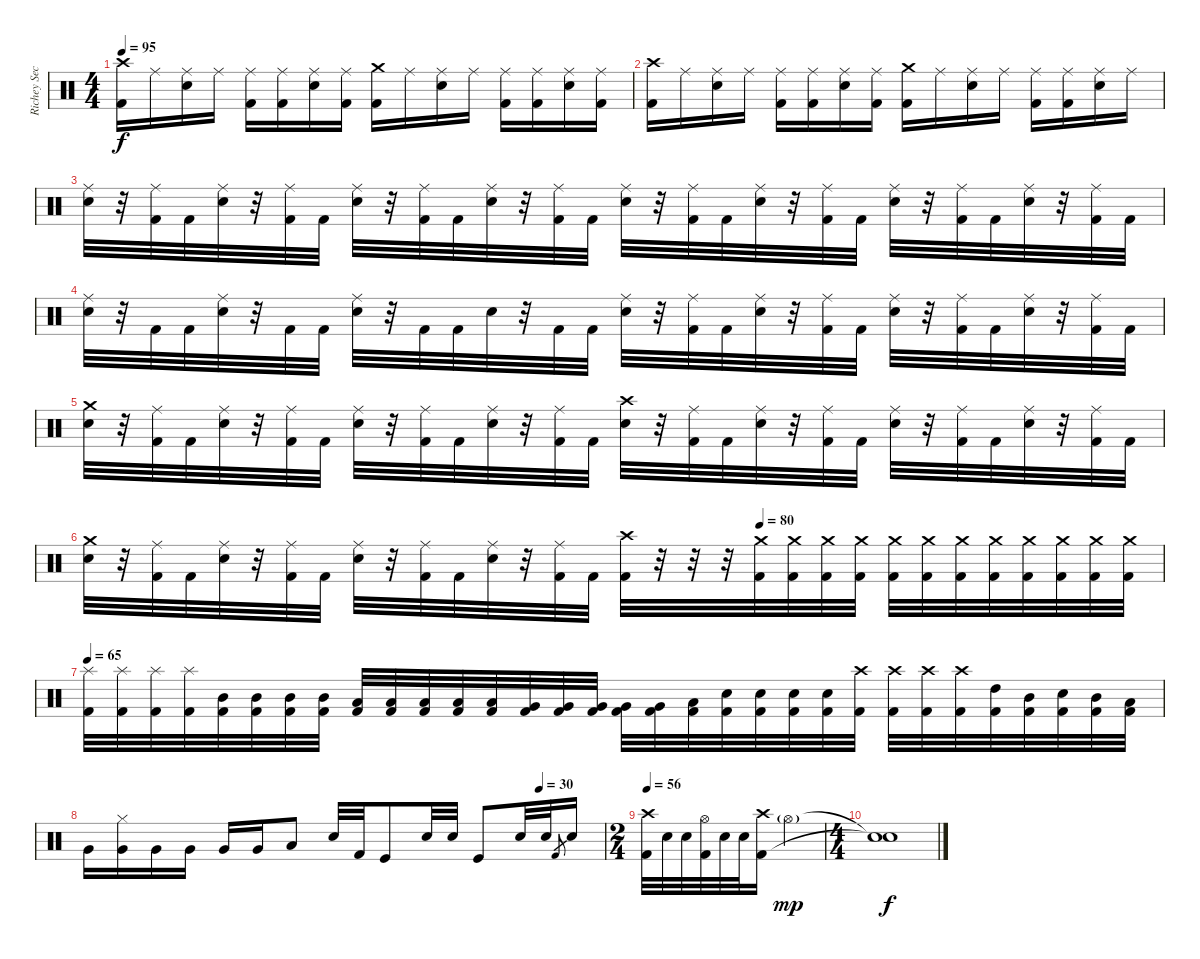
\track ("Richey Secchiri" "Richey Sec") {instrument percussion}
\staff {score}
\articulation defaults
\ts (4 4)
\tempo 95
\clef neutral
\ks c
("Crash high (hit)" "Kick (hit) 2").16{dy f} "Ride (middle)".16 ("Ride (middle)" "Snare (hit) 2").16 "Ride (middle)".16 ("Ride (middle)" "Kick (hit) 2").16 ("Ride (middle)" "Kick (hit) 2").16 ("Ride (middle)" "Snare (hit) 2").16 ("Ride (middle)" "Kick (hit) 2").16 ("Crash medium (hit)" "Kick (hit) 2").16 "Ride (middle)".16 ("Ride (middle)" "Snare (hit) 2").16 "Ride (middle)".16 ("Ride (middle)" "Kick (hit) 2").16 ("Ride (middle)" "Kick (hit) 2").16 ("Ride (middle)" "Snare (hit) 2").16 ("Ride (middle)" "Kick (hit) 2").16 |
("Crash high (hit)" "Kick (hit) 2").16 "Ride (middle)".16 ("Ride (middle)" "Snare (hit) 2").16 "Ride (middle)".16 ("Ride (middle)" "Kick (hit) 2").16 ("Ride (middle)" "Kick (hit) 2").16 ("Ride (middle)" "Snare (hit) 2").16 ("Ride (middle)" "Kick (hit) 2").16 ("Crash medium (hit)" "Kick (hit) 2").16 "Ride (middle)".16 ("Ride (middle)" "Snare (hit) 2").16 "Ride (middle)".16 ("Ride (middle)" "Kick (hit) 2").16 ("Ride (middle)" "Kick (hit) 2").16 ("Ride (middle)" "Snare (hit) 2").16 "Ride (middle)".16 |
("Ride (middle)" "Snare (hit) 2").32 r.32 ("Ride (middle)" "Kick (hit) 2").32 "Kick (hit) 2".32 ("Ride (middle)" "Snare (hit) 2").32 r.32 ("Ride (middle)" "Kick (hit) 2").32 "Kick (hit) 2".32 ("Ride (middle)" "Snare (hit) 2").32 r.32 ("Ride (middle)" "Kick (hit) 2").32 "Kick (hit) 2".32 ("Ride (middle)" "Snare (hit) 2").32 r.32 ("Ride (middle)" "Kick (hit) 2").32 "Kick (hit) 2".32 ("Ride (middle)" "Snare (hit) 2").32 r.32 ("Ride (middle)" "Kick (hit) 2").32 "Kick (hit) 2".32 ("Ride (middle)" "Snare (hit) 2").32 r.32 ("Ride (middle)" "Kick (hit) 2").32 "Kick (hit) 2".32 ("Ride (middle)" "Snare (hit) 2").32 r.32 ("Ride (middle)" "Kick (hit) 2").32 "Kick (hit) 2".32 ("Ride (middle)" "Snare (hit) 2").32 r.32 ("Ride (middle)" "Kick (hit) 2").32 "Kick (hit) 2".32 |
("Ride (middle)" "Snare (hit) 2").32 r.32 "Kick (hit) 2".32 "Kick (hit) 2".32 ("Ride (middle)" "Snare (hit) 2").32 r.32 "Kick (hit) 2".32 "Kick (hit) 2".32 ("Ride (middle)" "Snare (hit) 2").32 r.32 "Kick (hit) 2".32 "Kick (hit) 2".32 "Snare (hit) 2".32 r.32 "Kick (hit) 2".32 "Kick (hit) 2".32 ("Ride (middle)" "Snare (hit) 2").32 r.32 ("Ride (middle)" "Kick (hit) 2").32 "Kick (hit) 2".32 ("Ride (middle)" "Snare (hit) 2").32 r.32 ("Ride (middle)" "Kick (hit) 2").32 "Kick (hit) 2".32 ("Ride (middle)" "Snare (hit) 2").32 r.32 ("Ride (middle)" "Kick (hit) 2").32 "Kick (hit) 2".32 ("Ride (middle)" "Snare (hit) 2").32 r.32 ("Ride (middle)" "Kick (hit) 2").32 "Kick (hit) 2".32 |
("Crash medium (hit)" "Snare (hit) 2").32 r.32 ("Ride (middle)" "Kick (hit) 2").32 "Kick (hit) 2".32 ("Ride (middle)" "Snare (hit) 2").32 r.32 ("Ride (middle)" "Kick (hit) 2").32 "Kick (hit) 2".32 ("Ride (middle)" "Snare (hit) 2").32 r.32 ("Ride (middle)" "Kick (hit) 2").32 "Kick (hit) 2".32 ("Ride (middle)" "Snare (hit) 2").32 r.32 ("Ride (middle)" "Kick (hit) 2").32 "Kick (hit) 2".32 ("Crash high (hit)" "Snare (hit) 2").32 r.32 ("Ride (middle)" "Kick (hit) 2").32 "Kick (hit) 2".32 ("Ride (middle)" "Snare (hit) 2").32 r.32 ("Ride (middle)" "Kick (hit) 2").32 "Kick (hit) 2".32 ("Ride (middle)" "Snare (hit) 2").32 r.32 ("Ride (middle)" "Kick (hit) 2").32 "Kick (hit) 2".32 ("Ride (middle)" "Snare (hit) 2").32 r.32 ("Ride (middle)" "Kick (hit) 2").32 "Kick (hit) 2".32 |
\tempo (80 0.625)
("Crash medium (hit)" "Snare (hit) 2").32 r.32 ("Ride (middle)" "Kick (hit) 2").32 "Kick (hit) 2".32 ("Ride (middle)" "Snare (hit) 2").32 r.32 ("Ride (middle)" "Kick (hit) 2").32 "Kick (hit) 2".32 ("Ride (middle)" "Snare (hit) 2").32 r.32 ("Ride (middle)" "Kick (hit) 2").32 "Kick (hit) 2".32 ("Ride (middle)" "Snare (hit) 2").32 r.32 ("Ride (middle)" "Kick (hit) 2").32 "Kick (hit) 2".32 ("Crash high (hit)" "Kick (hit) 2").32 r.32 r.32 r.32 ("Crash medium (hit)" "Kick (hit) 2").32 ("Crash medium (hit)" "Kick (hit) 2").32 ("Crash medium (hit)" "Kick (hit) 2").32 ("Crash medium (hit)" "Kick (hit) 2").32 ("Crash medium (hit)" "Kick (hit) 2").32 ("Crash medium (hit)" "Kick (hit) 2").32 ("Crash medium (hit)" "Kick (hit) 2").32 ("Crash medium (hit)" "Kick (hit) 2").32 ("Crash medium (hit)" "Kick (hit) 2").32 ("Crash medium (hit)" "Kick (hit) 2").32 ("Crash medium (hit)" "Kick (hit) 2").32 ("Crash medium (hit)" "Kick (hit) 2").32 |
\tempo 65
("Splash (hit)" "Kick (hit) 2").32 ("Splash (hit)" "Kick (hit) 2").32 ("Splash (hit)" "Kick (hit) 2").32 ("Splash (hit)" "Kick (hit) 2").32 ("Mid Tom (hit)" "Kick (hit) 2").32 ("Mid Tom (hit)" "Kick (hit) 2").32 ("Mid Tom (hit)" "Kick (hit) 2").32 ("Mid Tom (hit)" "Kick (hit) 2").32 ("Low Tom (hit)" "Kick (hit) 2").32 ("Low Tom (hit)" "Kick (hit) 2").32 ("Low Tom (hit)" "Kick (hit) 2").32 ("Low Tom (hit)" "Kick (hit) 2").32 ("Low Tom (hit)" "Kick (hit) 2").32 ("Very Low Tom (hit)" "Kick (hit) 2").32 ("Very Low Tom (hit)" "Kick (hit) 2").32 ("Very Low Tom (hit)" "Kick (hit) 2").32 ("Very Low Tom (hit)" "Kick (hit) 2").32 ("Very Low Tom (hit)" "Kick (hit) 2").32 ("Low Floor Tom (hit)" "Kick (hit) 2").32 ("Snare (hit) 2" "Kick (hit) 2").32 ("Snare (hit) 2" "Kick (hit) 2").32 ("Snare (hit) 2" "Kick (hit) 2").32 ("Snare (hit) 2" "Kick (hit) 2").32 ("Crash high (hit)" "Kick (hit) 2").32 ("Crash high (hit)" "Kick (hit) 2").32 ("Crash high (hit)" "Kick (hit) 2").32 ("Crash high (hit)" "Kick (hit) 2").32 ("High Tom (hit)" "Kick (hit) 2").32 ("Mid Tom (hit)" "Kick (hit) 2").32 ("Snare (hit) 2" "Kick (hit) 2").32 ("Mid Tom (hit)" "Kick (hit) 2").32 ("Low Tom (hit)" "Kick (hit) 2").32 |
\tempo (30 0.875)
"Very Low Tom (hit)".16 ("Hi-Hat (closed)" "Very Low Tom (hit)").16 "Very Low Tom (hit)".16 "Very Low Tom (hit)".16 "Very Low Tom (hit)".16 "Very Low Tom (hit)".16 "Low Floor Tom (hit)".8 "Snare (hit) 2".32 "Kick (hit) 2".32 "Kick (hit)".8 "Snare (hit) 2".32 "Snare (hit) 2".32 "Kick (hit)".8 "Snare (hit) 2".32 "Snare (hit) 2".32 "Kick (hit) 2".8{gr} "Snare (hit) 2".16 |
\ts (2 4)
\tempo 56
("Crash high (hit)" "Kick (hit) 2").32 "Snare (hit) 2".32 "Snare (hit) 2".32 ("Hi-Hat (open)" "Kick (hit) 2").32 "Snare (hit) 2".32 "Snare (hit) 2".32 ("Crash high (hit)" "Kick (hit) 2").16 "Hi-Hat (open)"{g}.4{dy mp} |
\ts (4 4)
("Snare (hit)"{t} "Snare (hit)"{t}).1{dy f}
